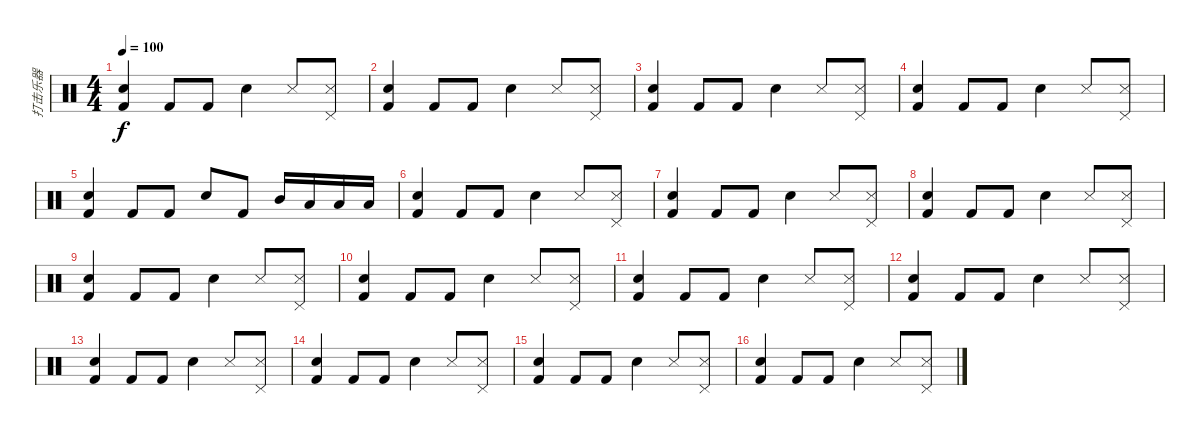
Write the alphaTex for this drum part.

\track ("打击乐器" "打击乐器") {instrument percussion}
\staff {score}
\articulation defaults
\ts (4 4)
\tempo 100
\clef neutral
\ks c
("Snare (hit) 2" "Kick (hit) 2").4{dy f} "Kick (hit) 2".8 "Kick (hit) 2".8 "Snare (hit) 2".4 "Snare (side stick) 3".8 ("Snare (side stick) 3" "Pedal Hi-Hat (hit)").8 |
("Snare (hit) 2" "Kick (hit) 2").4 "Kick (hit) 2".8 "Kick (hit) 2".8 "Snare (hit) 2".4 "Snare (side stick) 3".8 ("Snare (side stick) 3" "Pedal Hi-Hat (hit)").8 |
("Snare (hit) 2" "Kick (hit) 2").4 "Kick (hit) 2".8 "Kick (hit) 2".8 "Snare (hit) 2".4 "Snare (side stick) 3".8 ("Snare (side stick) 3" "Pedal Hi-Hat (hit)").8 |
("Snare (hit) 2" "Kick (hit) 2").4 "Kick (hit) 2".8 "Kick (hit) 2".8 "Snare (hit) 2".4 "Snare (side stick) 3".8 ("Snare (side stick) 3" "Pedal Hi-Hat (hit)").8 |
("Snare (hit) 2" "Kick (hit) 2").4 "Kick (hit) 2".8 "Kick (hit) 2".8 "Snare (hit) 2".8 "Kick (hit) 2".8 "Mid Tom (hit)".16 "Low Tom (hit)".16 "Low Floor Tom (hit)".16 "Low Floor Tom (hit)".16 |
("Snare (hit) 2" "Kick (hit) 2").4 "Kick (hit) 2".8 "Kick (hit) 2".8 "Snare (hit) 2".4 "Snare (side stick) 3".8 ("Snare (side stick) 3" "Pedal Hi-Hat (hit)").8 |
("Snare (hit) 2" "Kick (hit) 2").4 "Kick (hit) 2".8 "Kick (hit) 2".8 "Snare (hit) 2".4 "Snare (side stick) 3".8 ("Snare (side stick) 3" "Pedal Hi-Hat (hit)").8 |
("Snare (hit) 2" "Kick (hit) 2").4 "Kick (hit) 2".8 "Kick (hit) 2".8 "Snare (hit) 2".4 "Snare (side stick) 3".8 ("Snare (side stick) 3" "Pedal Hi-Hat (hit)").8 |
("Snare (hit) 2" "Kick (hit) 2").4 "Kick (hit) 2".8 "Kick (hit) 2".8 "Snare (hit) 2".4 "Snare (side stick) 3".8 ("Snare (side stick) 3" "Pedal Hi-Hat (hit)").8 |
("Snare (hit) 2" "Kick (hit) 2").4 "Kick (hit) 2".8 "Kick (hit) 2".8 "Snare (hit) 2".4 "Snare (side stick) 3".8 ("Snare (side stick) 3" "Pedal Hi-Hat (hit)").8 |
("Snare (hit) 2" "Kick (hit) 2").4 "Kick (hit) 2".8 "Kick (hit) 2".8 "Snare (hit) 2".4 "Snare (side stick) 3".8 ("Snare (side stick) 3" "Pedal Hi-Hat (hit)").8 |
("Snare (hit) 2" "Kick (hit) 2").4 "Kick (hit) 2".8 "Kick (hit) 2".8 "Snare (hit) 2".4 "Snare (side stick) 3".8 ("Snare (side stick) 3" "Pedal Hi-Hat (hit)").8 |
("Snare (hit) 2" "Kick (hit) 2").4 "Kick (hit) 2".8 "Kick (hit) 2".8 "Snare (hit) 2".4 "Snare (side stick) 3".8 ("Snare (side stick) 3" "Pedal Hi-Hat (hit)").8 |
("Snare (hit) 2" "Kick (hit) 2").4 "Kick (hit) 2".8 "Kick (hit) 2".8 "Snare (hit) 2".4 "Snare (side stick) 3".8 ("Snare (side stick) 3" "Pedal Hi-Hat (hit)").8 |
("Snare (hit) 2" "Kick (hit) 2").4 "Kick (hit) 2".8 "Kick (hit) 2".8 "Snare (hit) 2".4 "Snare (side stick) 3".8 ("Snare (side stick) 3" "Pedal Hi-Hat (hit)").8 |
("Snare (hit) 2" "Kick (hit) 2").4 "Kick (hit) 2".8 "Kick (hit) 2".8 "Snare (hit) 2".4 "Snare (side stick) 3".8 ("Snare (side stick) 3" "Pedal Hi-Hat (hit)").8
